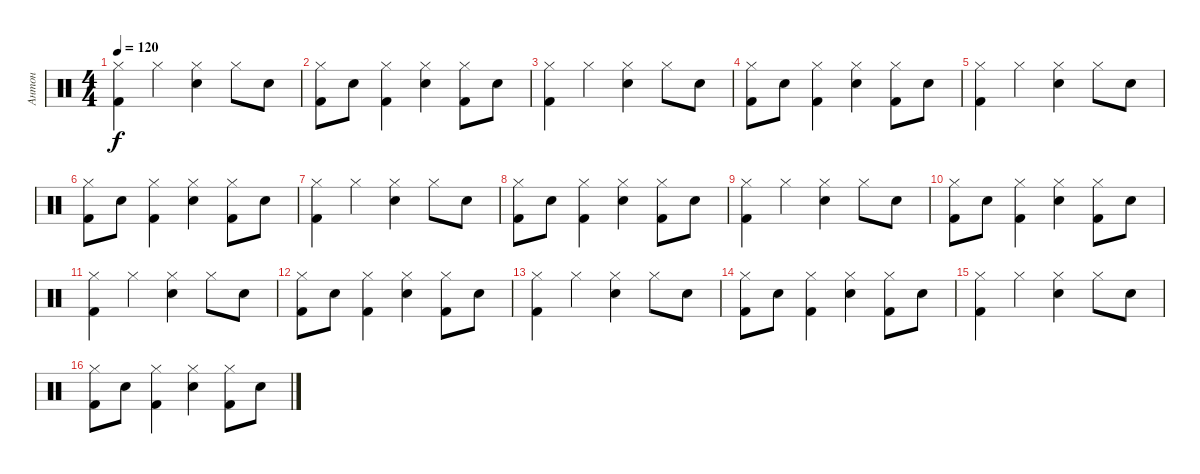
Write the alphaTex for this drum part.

\track ("Антон" "Антон") {instrument percussion}
\staff {score}
\articulation defaults
\ts (4 4)
\tempo 120
\clef neutral
\ks c
("Hi-Hat (closed)" "Kick (hit) 2").4{dy f} "Hi-Hat (closed)".4 ("Hi-Hat (closed)" "Electric Snare (hit)").4 "Hi-Hat (closed)".8 "Electric Snare (hit)".8 |
("Hi-Hat (closed)" "Kick (hit) 2").8 "Electric Snare (hit)".8 ("Hi-Hat (closed)" "Kick (hit) 2").4 ("Hi-Hat (closed)" "Electric Snare (hit)").4 ("Hi-Hat (closed)" "Kick (hit) 2").8 "Electric Snare (hit)".8 |
("Hi-Hat (closed)" "Kick (hit) 2").4 "Hi-Hat (closed)".4 ("Hi-Hat (closed)" "Electric Snare (hit)").4 "Hi-Hat (closed)".8 "Electric Snare (hit)".8 |
("Hi-Hat (closed)" "Kick (hit) 2").8 "Electric Snare (hit)".8 ("Hi-Hat (closed)" "Kick (hit) 2").4 ("Hi-Hat (closed)" "Electric Snare (hit)").4 ("Hi-Hat (closed)" "Kick (hit) 2").8 "Electric Snare (hit)".8 |
("Hi-Hat (closed)" "Kick (hit) 2").4 "Hi-Hat (closed)".4 ("Hi-Hat (closed)" "Electric Snare (hit)").4 "Hi-Hat (closed)".8 "Electric Snare (hit)".8 |
("Hi-Hat (closed)" "Kick (hit) 2").8 "Electric Snare (hit)".8 ("Hi-Hat (closed)" "Kick (hit) 2").4 ("Hi-Hat (closed)" "Electric Snare (hit)").4 ("Hi-Hat (closed)" "Kick (hit) 2").8 "Electric Snare (hit)".8 |
("Hi-Hat (closed)" "Kick (hit) 2").4 "Hi-Hat (closed)".4 ("Hi-Hat (closed)" "Electric Snare (hit)").4 "Hi-Hat (closed)".8 "Electric Snare (hit)".8 |
("Hi-Hat (closed)" "Kick (hit) 2").8 "Electric Snare (hit)".8 ("Hi-Hat (closed)" "Kick (hit) 2").4 ("Hi-Hat (closed)" "Electric Snare (hit)").4 ("Hi-Hat (closed)" "Kick (hit) 2").8 "Electric Snare (hit)".8 |
("Hi-Hat (closed)" "Kick (hit) 2").4 "Hi-Hat (closed)".4 ("Hi-Hat (closed)" "Electric Snare (hit)").4 "Hi-Hat (closed)".8 "Electric Snare (hit)".8 |
("Hi-Hat (closed)" "Kick (hit) 2").8 "Electric Snare (hit)".8 ("Hi-Hat (closed)" "Kick (hit) 2").4 ("Hi-Hat (closed)" "Electric Snare (hit)").4 ("Hi-Hat (closed)" "Kick (hit) 2").8 "Electric Snare (hit)".8 |
("Hi-Hat (closed)" "Kick (hit) 2").4 "Hi-Hat (closed)".4 ("Hi-Hat (closed)" "Electric Snare (hit)").4 "Hi-Hat (closed)".8 "Electric Snare (hit)".8 |
("Hi-Hat (closed)" "Kick (hit) 2").8 "Electric Snare (hit)".8 ("Hi-Hat (closed)" "Kick (hit) 2").4 ("Hi-Hat (closed)" "Electric Snare (hit)").4 ("Hi-Hat (closed)" "Kick (hit) 2").8 "Electric Snare (hit)".8 |
("Hi-Hat (closed)" "Kick (hit) 2").4 "Hi-Hat (closed)".4 ("Hi-Hat (closed)" "Electric Snare (hit)").4 "Hi-Hat (closed)".8 "Electric Snare (hit)".8 |
("Hi-Hat (closed)" "Kick (hit) 2").8 "Electric Snare (hit)".8 ("Hi-Hat (closed)" "Kick (hit) 2").4 ("Hi-Hat (closed)" "Electric Snare (hit)").4 ("Hi-Hat (closed)" "Kick (hit) 2").8 "Electric Snare (hit)".8 |
("Hi-Hat (closed)" "Kick (hit) 2").4 "Hi-Hat (closed)".4 ("Hi-Hat (closed)" "Electric Snare (hit)").4 "Hi-Hat (closed)".8 "Electric Snare (hit)".8 |
("Hi-Hat (closed)" "Kick (hit) 2").8 "Electric Snare (hit)".8 ("Hi-Hat (closed)" "Kick (hit) 2").4 ("Hi-Hat (closed)" "Electric Snare (hit)").4 ("Hi-Hat (closed)" "Kick (hit) 2").8 "Electric Snare (hit)".8
